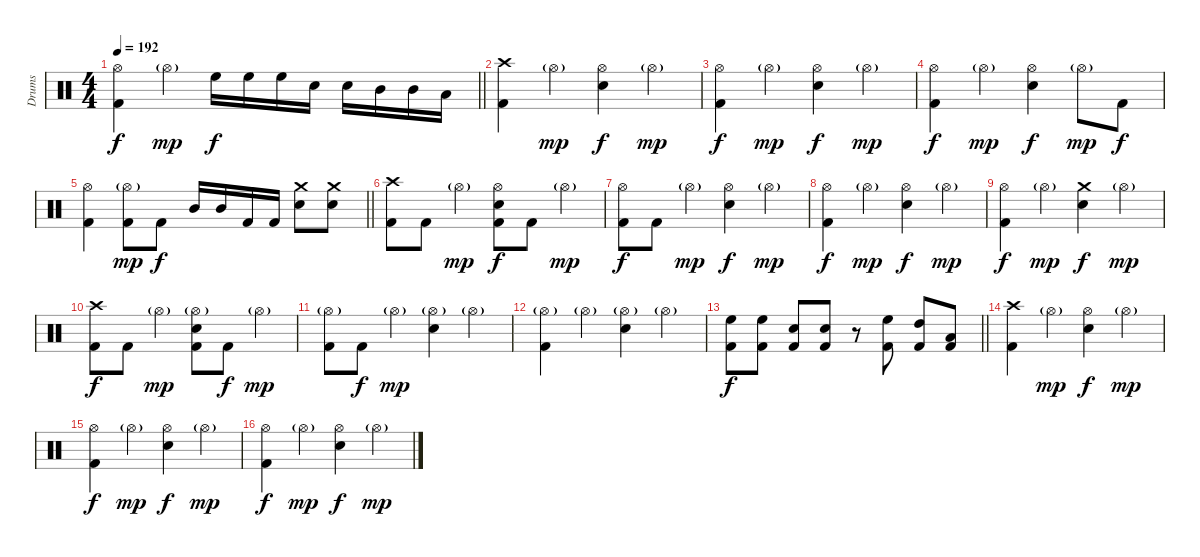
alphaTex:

\track ("Drums" "Drums") {instrument percussion}
\staff {score}
\articulation defaults
\ts (4 4)
\tempo 192
\clef neutral
\barLineRight lightlight
\ks c
("Hi-Hat (open)" "Kick (hit) 2").4{dy f} "Hi-Hat (open)"{g}.4{dy mp} "High Floor Tom (hit)".16{dy f} "High Floor Tom (hit)".16 "High Floor Tom (hit)".16 "Electric Snare (hit)".16 "Electric Snare (hit)".16 "Mid Tom (hit)".16 "Mid Tom (hit)".16 "Low Tom (hit)".16 |
("Crash high (hit)" "Kick (hit) 2").4 "Hi-Hat (open)"{g}.4{dy mp} ("Hi-Hat (open)" "Electric Snare (hit)").4{dy f} "Hi-Hat (open)"{g}.4{dy mp} |
("Hi-Hat (open)" "Kick (hit) 2").4{dy f} "Hi-Hat (open)"{g}.4{dy mp} ("Hi-Hat (open)" "Electric Snare (hit)").4{dy f} "Hi-Hat (open)"{g}.4{dy mp} |
("Hi-Hat (open)" "Kick (hit) 2").4{dy f} "Hi-Hat (open)"{g}.4{dy mp} ("Hi-Hat (open)" "Electric Snare (hit)").4{dy f} "Hi-Hat (open)"{g}.8{dy mp} "Kick (hit) 2".8{dy f} |
\barLineRight lightlight
("Hi-Hat (open)" "Kick (hit) 2").4 ("Hi-Hat (open)"{g} "Kick (hit) 2").8{dy mp} "Kick (hit) 2".8{dy f} "Mid Tom (hit)".16 "Mid Tom (hit)".16 "Kick (hit) 2".16 "Kick (hit) 2".16 ("Crash medium (hit)" "Electric Snare (hit)").8 ("Crash medium (hit)" "Electric Snare (hit)").8 |
("Crash high (hit)" "Kick (hit) 2").8 "Kick (hit) 2".8 "Hi-Hat (open)"{g}.4{dy mp} ("Hi-Hat (open)" "Electric Snare (hit)" "Kick (hit) 2").8{dy f} "Kick (hit) 2".8 "Hi-Hat (open)"{g}.4{dy mp} |
("Hi-Hat (open)" "Kick (hit) 2").8{dy f} "Kick (hit) 2".8 "Hi-Hat (open)"{g}.4{dy mp} ("Hi-Hat (open)" "Electric Snare (hit)").4{dy f} "Hi-Hat (open)"{g}.4{dy mp} |
("Hi-Hat (open)" "Kick (hit) 2").4{dy f} "Hi-Hat (open)"{g}.4{dy mp} ("Hi-Hat (open)" "Electric Snare (hit)").4{dy f} "Hi-Hat (open)"{g}.4{dy mp} |
("Hi-Hat (open)" "Kick (hit) 2").4{dy f} "Hi-Hat (open)"{g}.4{dy mp} ("Crash medium (hit)" "Electric Snare (hit)").4{dy f} "Hi-Hat (open)"{g}.4{dy mp} |
("Crash high (hit)" "Kick (hit) 2").8{dy f} "Kick (hit) 2".8 "Hi-Hat (open)"{g}.4{dy mp} ("Hi-Hat (open)"{g} "Electric Snare (hit)" "Kick (hit) 2").8 "Kick (hit) 2".8{dy f} "Hi-Hat (open)"{g}.4{dy mp} |
("Hi-Hat (open)"{g} "Kick (hit) 2").8 "Kick (hit) 2".8{dy f} "Hi-Hat (open)"{g}.4{dy mp} ("Hi-Hat (open)"{g} "Electric Snare (hit)").4 "Hi-Hat (open)"{g}.4 |
("Hi-Hat (open)"{g} "Kick (hit) 2").4 "Hi-Hat (open)"{g}.4 ("Hi-Hat (open)"{g} "Electric Snare (hit)").4 "Hi-Hat (open)"{g}.4 |
\barLineRight lightlight
("High Floor Tom (hit)" "Kick (hit) 2").8{dy f} ("High Floor Tom (hit)" "Kick (hit) 2").8 ("Electric Snare (hit)" "Kick (hit) 2").8 ("Electric Snare (hit)" "Kick (hit) 2").8 r.8 ("High Floor Tom (hit)" "Kick (hit) 2").8 ("High Tom (hit)" "Kick (hit) 2").8 ("Low Tom (hit)" "Kick (hit) 2").8 |
("Crash high (hit)" "Kick (hit) 2").4 "Hi-Hat (open)"{g}.4{dy mp} ("Hi-Hat (open)" "Electric Snare (hit)").4{dy f} "Hi-Hat (open)"{g}.4{dy mp} |
("Hi-Hat (open)" "Kick (hit) 2").4{dy f} "Hi-Hat (open)"{g}.4{dy mp} ("Hi-Hat (open)" "Electric Snare (hit)").4{dy f} "Hi-Hat (open)"{g}.4{dy mp} |
("Hi-Hat (open)" "Kick (hit) 2").4{dy f} "Hi-Hat (open)"{g}.4{dy mp} ("Hi-Hat (open)" "Electric Snare (hit)").4{dy f} "Hi-Hat (open)"{g}.4{dy mp}
